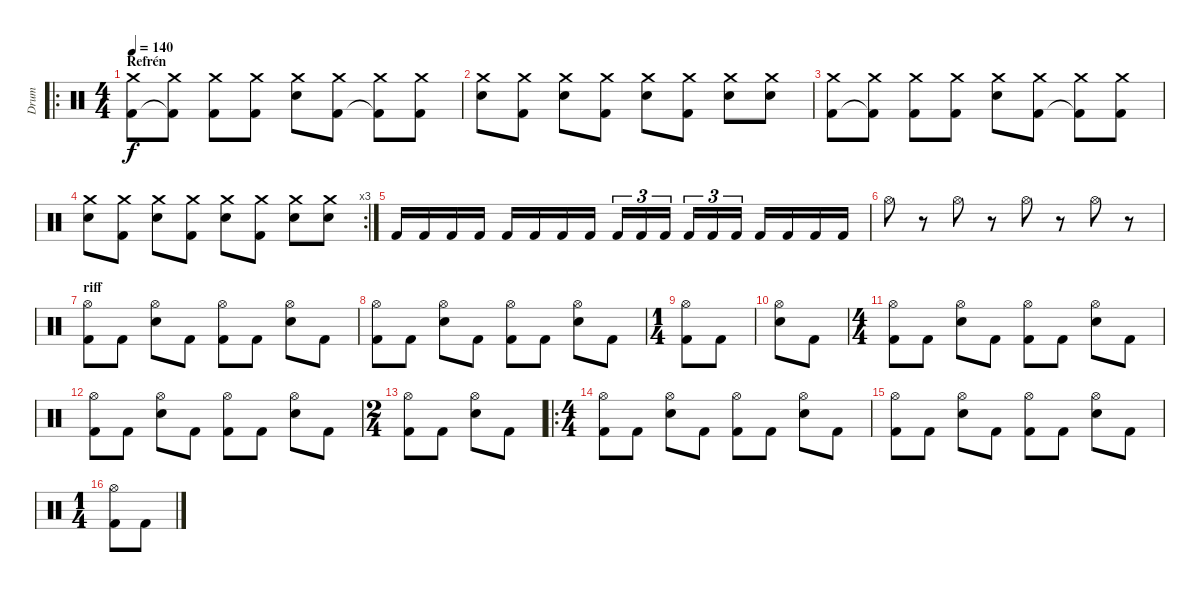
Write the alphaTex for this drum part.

\track ("Drum" "Drum") {instrument percussion}
\staff {score}
\articulation defaults
\ro
\ts (4 4)
\section ("" "Refrén")
\tempo 140
\clef neutral
\ks c
("Crash medium (hit)" "Kick (hit) 2").8{dy f} ("Crash medium (hit)" "Kick (hit) 2"{t}).8 ("Crash medium (hit)" "Kick (hit) 2").8 ("Crash medium (hit)" "Kick (hit) 2").8 ("Crash medium (hit)" "Electric Snare (hit)").8 ("Crash medium (hit)" "Kick (hit) 2").8 ("Crash medium (hit)" "Kick (hit) 2"{t}).8 ("Crash medium (hit)" "Kick (hit) 2").8 |
("Crash medium (hit)" "Electric Snare (hit)").8 ("Crash medium (hit)" "Kick (hit) 2").8 ("Crash medium (hit)" "Electric Snare (hit)").8 ("Crash medium (hit)" "Kick (hit) 2").8 ("Crash medium (hit)" "Electric Snare (hit)").8 ("Crash medium (hit)" "Kick (hit) 2").8 ("Crash medium (hit)" "Electric Snare (hit)").8 ("Crash medium (hit)" "Electric Snare (hit)").8 |
("Crash medium (hit)" "Kick (hit) 2").8 ("Crash medium (hit)" "Kick (hit) 2"{t}).8 ("Crash medium (hit)" "Kick (hit) 2").8 ("Crash medium (hit)" "Kick (hit) 2").8 ("Crash medium (hit)" "Electric Snare (hit)").8 ("Crash medium (hit)" "Kick (hit) 2").8 ("Crash medium (hit)" "Kick (hit) 2"{t}).8 ("Crash medium (hit)" "Kick (hit) 2").8 |
\rc 3
("Crash medium (hit)" "Electric Snare (hit)").8 ("Crash medium (hit)" "Kick (hit) 2").8 ("Crash medium (hit)" "Electric Snare (hit)").8 ("Crash medium (hit)" "Kick (hit) 2").8 ("Crash medium (hit)" "Electric Snare (hit)").8 ("Crash medium (hit)" "Kick (hit) 2").8 ("Crash medium (hit)" "Electric Snare (hit)").8 ("Crash medium (hit)" "Electric Snare (hit)").8 |
\section ("" "")
"Kick (hit) 2".16 "Kick (hit) 2".16 "Kick (hit) 2".16 "Kick (hit) 2".16 "Kick (hit) 2".16 "Kick (hit) 2".16 "Kick (hit) 2".16 "Kick (hit) 2".16 "Kick (hit) 2".16{tu (3 2)} "Kick (hit) 2".16{tu (3 2)} "Kick (hit) 2".16{tu (3 2)} "Kick (hit) 2".16{tu (3 2)} "Kick (hit) 2".16{tu (3 2)} "Kick (hit) 2".16{tu (3 2)} "Kick (hit) 2".16 "Kick (hit) 2".16 "Kick (hit) 2".16 "Kick (hit) 2".16 |
\section ("" "")
"Hi-Hat (open)".8 r.8 "Hi-Hat (open)".8 r.8 "Hi-Hat (open)".8 r.8 "Hi-Hat (open)".8 r.8 |
\section ("" "riff")
("Hi-Hat (open)" "Kick (hit) 2").8 "Kick (hit) 2".8 ("Hi-Hat (open)" "Electric Snare (hit)").8 "Kick (hit) 2".8 ("Hi-Hat (open)" "Kick (hit) 2").8 "Kick (hit) 2".8 ("Hi-Hat (open)" "Electric Snare (hit)").8 "Kick (hit) 2".8 |
("Hi-Hat (open)" "Kick (hit) 2").8 "Kick (hit) 2".8 ("Hi-Hat (open)" "Electric Snare (hit)").8 "Kick (hit) 2".8 ("Hi-Hat (open)" "Kick (hit) 2").8 "Kick (hit) 2".8 ("Hi-Hat (open)" "Electric Snare (hit)").8 "Kick (hit) 2".8 |
\ts (1 4)
("Hi-Hat (open)" "Kick (hit) 2").8 "Kick (hit) 2".8 |
("Hi-Hat (open)" "Electric Snare (hit)").8 "Kick (hit) 2".8 |
\ts (4 4)
("Hi-Hat (open)" "Kick (hit) 2").8 "Kick (hit) 2".8 ("Hi-Hat (open)" "Electric Snare (hit)").8 "Kick (hit) 2".8 ("Hi-Hat (open)" "Kick (hit) 2").8 "Kick (hit) 2".8 ("Hi-Hat (open)" "Electric Snare (hit)").8 "Kick (hit) 2".8 |
("Hi-Hat (open)" "Kick (hit) 2").8 "Kick (hit) 2".8 ("Hi-Hat (open)" "Electric Snare (hit)").8 "Kick (hit) 2".8 ("Hi-Hat (open)" "Kick (hit) 2").8 "Kick (hit) 2".8 ("Hi-Hat (open)" "Electric Snare (hit)").8 "Kick (hit) 2".8 |
\ts (2 4)
("Hi-Hat (open)" "Kick (hit) 2").8 "Kick (hit) 2".8 ("Hi-Hat (open)" "Electric Snare (hit)").8 "Kick (hit) 2".8 |
\ro
\ts (4 4)
("Hi-Hat (open)" "Kick (hit) 2").8 "Kick (hit) 2".8 ("Hi-Hat (open)" "Electric Snare (hit)").8 "Kick (hit) 2".8 ("Hi-Hat (open)" "Kick (hit) 2").8 "Kick (hit) 2".8 ("Hi-Hat (open)" "Electric Snare (hit)").8 "Kick (hit) 2".8 |
("Hi-Hat (open)" "Kick (hit) 2").8 "Kick (hit) 2".8 ("Hi-Hat (open)" "Electric Snare (hit)").8 "Kick (hit) 2".8 ("Hi-Hat (open)" "Kick (hit) 2").8 "Kick (hit) 2".8 ("Hi-Hat (open)" "Electric Snare (hit)").8 "Kick (hit) 2".8 |
\ts (1 4)
("Hi-Hat (open)" "Kick (hit) 2").8 "Kick (hit) 2".8
